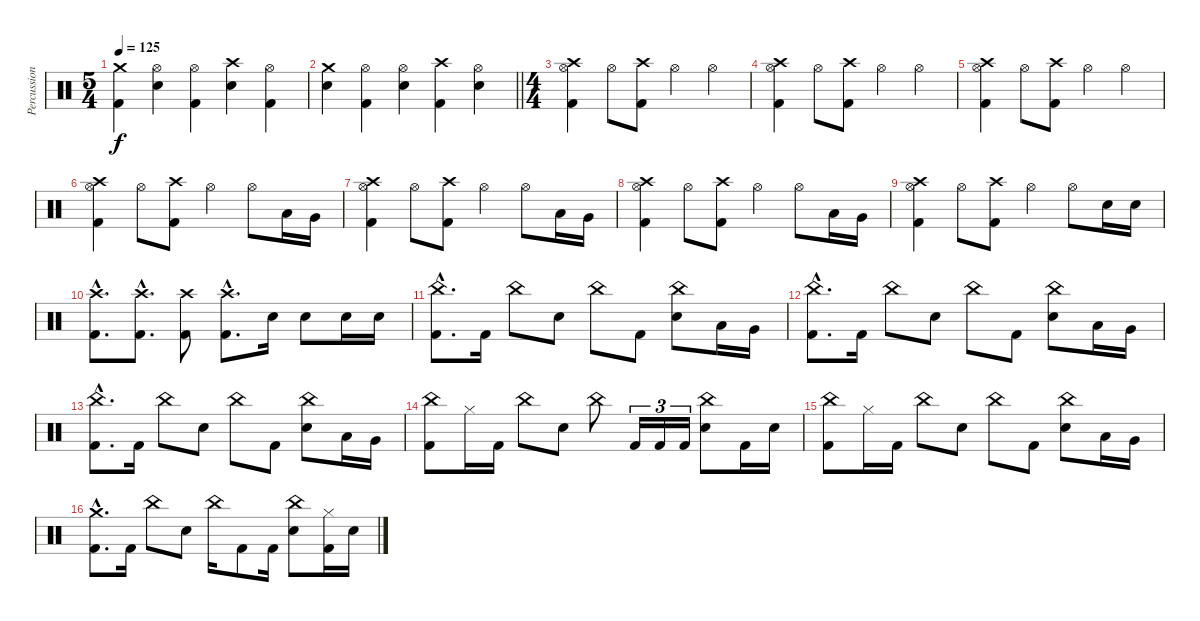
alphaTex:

\track ("Percussion" "Percussion") {instrument percussion}
\staff {score}
\articulation defaults
\ts (5 4)
\tempo 125
\clef neutral
\ks c
("Crash medium (hit)" "Kick (hit) 2").4{dy f} ("Hi-Hat (open)" "Electric Snare (hit)").4 ("Hi-Hat (open)" "Kick (hit) 2").4 ("Crash high (hit)" "Electric Snare (hit)").4 ("Hi-Hat (open)" "Kick (hit) 2").4 |
\barLineRight lightlight
("Crash medium (hit)" "Electric Snare (hit)").4 ("Hi-Hat (open)" "Kick (hit) 2").4 ("Hi-Hat (open)" "Electric Snare (hit)").4 ("Crash high (hit)" "Kick (hit) 2").4 ("Hi-Hat (open)" "Electric Snare (hit)").4 |
\ts (4 4)
("Crash high (hit)" "Hi-Hat (open)" "Kick (hit) 2").4 "Hi-Hat (open)".8 ("Crash high (hit)" "Kick (hit) 2").8 "Hi-Hat (open)".4 "Hi-Hat (open)".4 |
("Crash high (hit)" "Hi-Hat (open)" "Kick (hit) 2").4 "Hi-Hat (open)".8 ("Crash high (hit)" "Kick (hit) 2").8 "Hi-Hat (open)".4 "Hi-Hat (open)".4 |
("Crash high (hit)" "Hi-Hat (open)" "Kick (hit) 2").4 "Hi-Hat (open)".8 ("Crash high (hit)" "Kick (hit) 2").8 "Hi-Hat (open)".4 "Hi-Hat (open)".4 |
("Crash high (hit)" "Hi-Hat (open)" "Kick (hit) 2").4 "Hi-Hat (open)".8 ("Crash high (hit)" "Kick (hit) 2").8 "Hi-Hat (open)".4 "Hi-Hat (open)".8 "Low Tom (hit)".16 "Very Low Tom (hit)".16 |
("Crash high (hit)" "Hi-Hat (open)" "Kick (hit) 2").4 "Hi-Hat (open)".8 ("Crash high (hit)" "Kick (hit) 2").8 "Hi-Hat (open)".4 "Hi-Hat (open)".8 "Low Tom (hit)".16 "Very Low Tom (hit)".16 |
("Crash high (hit)" "Hi-Hat (open)" "Kick (hit) 2").4 "Hi-Hat (open)".8 ("Crash high (hit)" "Kick (hit) 2").8 "Hi-Hat (open)".4 "Hi-Hat (open)".8 "Low Tom (hit)".16 "Very Low Tom (hit)".16 |
("Crash high (hit)" "Hi-Hat (open)" "Kick (hit) 2").4 "Hi-Hat (open)".8 ("Crash high (hit)" "Kick (hit) 2").8 "Hi-Hat (open)".4 "Hi-Hat (open)".8 "Electric Snare (hit)".16 "Electric Snare (hit)".16 |
("Crash high (hit)"{hac} "Kick (hit) 2"{hac}).8{d} ("Crash high (hit)"{hac} "Kick (hit) 2"{hac}).8{d} ("Crash high (hit)" "Kick (hit) 2").8 ("Crash high (hit)"{hac} "Kick (hit) 2"{hac}).8{d} "Electric Snare (hit)".16 "Electric Snare (hit)".8 "Electric Snare (hit)".16 "Electric Snare (hit)".16 |
("China (hit)"{hac} "Kick (hit) 2"{hac}).8{d} "Kick (hit) 2".16 "China (hit)".8 "Electric Snare (hit)".8 "China (hit)".8 "Kick (hit) 2".8 ("China (hit)" "Electric Snare (hit)").8 "Low Tom (hit)".16 "Very Low Tom (hit)".16 |
("China (hit)"{hac} "Kick (hit) 2"{hac}).8{d} "Kick (hit) 2".16 "China (hit)".8 "Electric Snare (hit)".8 "China (hit)".8 "Kick (hit) 2".8 ("China (hit)" "Electric Snare (hit)").8 "Low Tom (hit)".16 "Very Low Tom (hit)".16 |
("China (hit)"{hac} "Kick (hit) 2"{hac}).8{d} "Kick (hit) 2".16 "China (hit)".8 "Electric Snare (hit)".8 "China (hit)".8 "Kick (hit) 2".8 ("China (hit)" "Electric Snare (hit)").8 "Low Tom (hit)".16 "Very Low Tom (hit)".16 |
("China (hit)" "Kick (hit) 2").8 "Hi-Hat (closed)".16 "Kick (hit) 2".16 "China (hit)".8 "Electric Snare (hit)".8 "China (hit)".8 "Kick (hit) 2".16{tu (3 2)} "Kick (hit) 2".16{tu (3 2)} "Kick (hit) 2".16{tu (3 2)} ("China (hit)" "Electric Snare (hit)").8 "Kick (hit) 2".16 "Electric Snare (hit)".16 |
("China (hit)" "Kick (hit) 2").8 "Hi-Hat (closed)".16 "Kick (hit) 2".16 "China (hit)".8 "Electric Snare (hit)".8 "China (hit)".8 "Kick (hit) 2".8 ("China (hit)" "Electric Snare (hit)").8 "Low Tom (hit)".16 "Very Low Tom (hit)".16 |
("Crash medium (hit)"{hac} "Kick (hit) 2"{hac}).8{d} "Kick (hit) 2".16 "China (hit)".8 "Electric Snare (hit)".8 "China (hit)".16 "Kick (hit) 2".8 "Kick (hit) 2".16 ("China (hit)" "Electric Snare (hit)").8 ("Hi-Hat (closed)" "Kick (hit) 2").16 "Electric Snare (hit)".16
